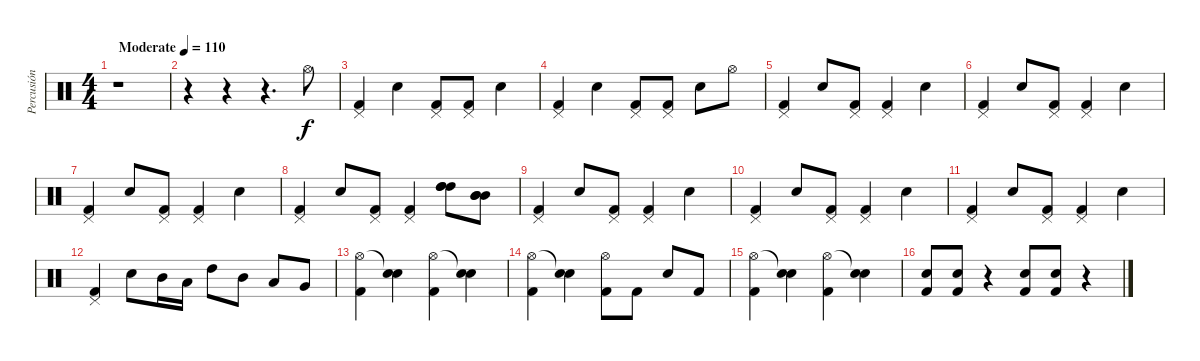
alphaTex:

\track ("Percusión" "Percusión") {instrument percussion}
\staff {score}
\articulation defaults
\ts (4 4)
\tempo (110 "Moderate")
\clef neutral
\ks c
r.1{dy f} |
r.4 r.4 r.4{d} "Hi-Hat (open)".8 |
("Pedal Hi-Hat (hit)" "Kick (hit) 2").4 "Electric Snare (hit)".4 ("Pedal Hi-Hat (hit)" "Kick (hit) 2").8 ("Pedal Hi-Hat (hit)" "Kick (hit) 2").8 "Electric Snare (hit)".4 |
("Pedal Hi-Hat (hit)" "Kick (hit) 2").4 "Electric Snare (hit)".4 ("Pedal Hi-Hat (hit)" "Kick (hit) 2").8 ("Pedal Hi-Hat (hit)" "Kick (hit) 2").8 "Electric Snare (hit)".8 "Hi-Hat (open)".8 |
("Pedal Hi-Hat (hit)" "Kick (hit) 2").4 "Electric Snare (hit)".8 ("Pedal Hi-Hat (hit)" "Kick (hit) 2").8 ("Pedal Hi-Hat (hit)" "Kick (hit) 2").4 "Electric Snare (hit)".4 |
("Pedal Hi-Hat (hit)" "Kick (hit) 2").4 "Electric Snare (hit)".8 ("Pedal Hi-Hat (hit)" "Kick (hit) 2").8 ("Pedal Hi-Hat (hit)" "Kick (hit) 2").4 "Electric Snare (hit)".4 |
("Pedal Hi-Hat (hit)" "Kick (hit) 2").4 "Electric Snare (hit)".8 ("Pedal Hi-Hat (hit)" "Kick (hit) 2").8 ("Pedal Hi-Hat (hit)" "Kick (hit) 2").4 "Electric Snare (hit)".4 |
("Pedal Hi-Hat (hit)" "Kick (hit) 2").4 "Electric Snare (hit)".8 ("Pedal Hi-Hat (hit)" "Kick (hit) 2").8 ("Pedal Hi-Hat (hit)" "Kick (hit) 2").4 ("High Tom (hit)" "High Tom (hit)" "High Tom (hit)").8 ("Mid Tom (hit)" "Mid Tom (hit)" "Mid Tom (hit)").8 |
("Pedal Hi-Hat (hit)" "Kick (hit) 2").4 "Electric Snare (hit)".8 ("Pedal Hi-Hat (hit)" "Kick (hit) 2").8 ("Pedal Hi-Hat (hit)" "Kick (hit) 2").4 "Electric Snare (hit)".4 |
("Pedal Hi-Hat (hit)" "Kick (hit) 2").4 "Electric Snare (hit)".8 ("Pedal Hi-Hat (hit)" "Kick (hit) 2").8 ("Pedal Hi-Hat (hit)" "Kick (hit) 2").4 "Electric Snare (hit)".4 |
("Pedal Hi-Hat (hit)" "Kick (hit) 2").4 "Electric Snare (hit)".8 ("Pedal Hi-Hat (hit)" "Kick (hit) 2").8 ("Pedal Hi-Hat (hit)" "Kick (hit) 2").4 "Electric Snare (hit)".4 |
("Pedal Hi-Hat (hit)" "Kick (hit) 2").4 "Electric Snare (hit)".8 "Mid Tom (hit)".16 "Low Tom (hit)".16 "High Tom (hit)".8 "Mid Tom (hit)".8 "Low Tom (hit)".8 "Very Low Tom (hit)".8 |
("Hi-Hat (open)" "Kick (hit) 2").4 ("Snare (hit)"{t} "Electric Snare (hit)").4 ("Hi-Hat (open)" "Kick (hit) 2").4 ("Snare (hit)"{t} "Electric Snare (hit)").4 |
("Hi-Hat (open)" "Kick (hit) 2").4 ("Snare (hit)"{t} "Electric Snare (hit)").4 ("Hi-Hat (open)" "Kick (hit) 2").8 "Kick (hit) 2".8 "Electric Snare (hit)".8 "Kick (hit) 2".8 |
("Hi-Hat (open)" "Kick (hit) 2").4 ("Snare (hit)"{t} "Electric Snare (hit)").4 ("Hi-Hat (open)" "Kick (hit) 2").4 ("Snare (hit)"{t} "Electric Snare (hit)").4 |
("Electric Snare (hit)" "Kick (hit) 2").8 ("Electric Snare (hit)" "Kick (hit) 2").8 r.4 ("Electric Snare (hit)" "Kick (hit) 2").8 ("Electric Snare (hit)" "Kick (hit) 2").8 r.4
